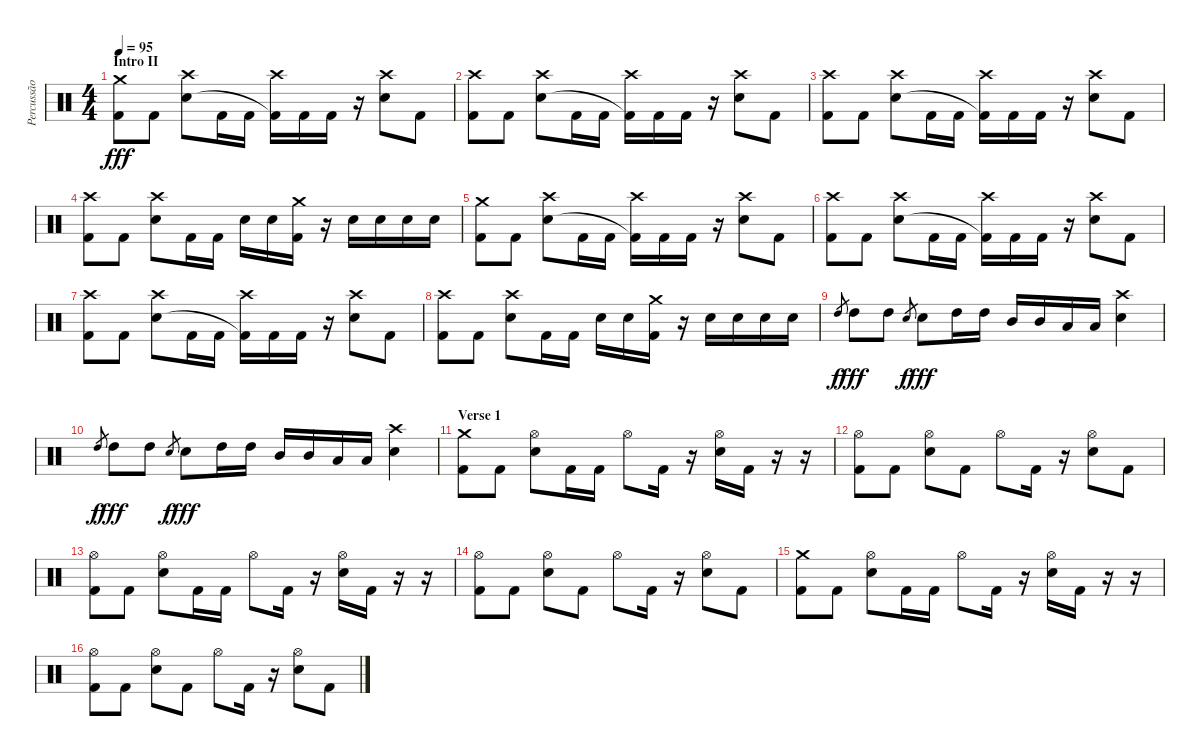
\track ("Percussão" "Percussão") {instrument percussion}
\staff {score}
\articulation defaults
\ts (4 4)
\section ("" "Intro II")
\tempo 95
\clef neutral
\ks c
("Crash medium (hit)" "Kick (hit) 2").8{dy fff} "Kick (hit) 2".8 ("Crash high (hit)" "Electric Snare (hit)").8 "Kick (hit) 2".16 "Kick (hit) 2".16 ("Crash high (hit)" "Kick (hit) 2"{t}).16 "Kick (hit) 2".16 "Kick (hit) 2".16 r.16 ("Crash high (hit)" "Electric Snare (hit)").8 "Kick (hit) 2".8 |
("Crash high (hit)" "Kick (hit) 2").8 "Kick (hit) 2".8 ("Crash high (hit)" "Electric Snare (hit)").8 "Kick (hit) 2".16 "Kick (hit) 2".16 ("Crash high (hit)" "Kick (hit) 2"{t}).16 "Kick (hit) 2".16 "Kick (hit) 2".16 r.16 ("Crash high (hit)" "Electric Snare (hit)").8 "Kick (hit) 2".8 |
("Crash high (hit)" "Kick (hit) 2").8 "Kick (hit) 2".8 ("Crash high (hit)" "Electric Snare (hit)").8 "Kick (hit) 2".16 "Kick (hit) 2".16 ("Crash high (hit)" "Kick (hit) 2"{t}).16 "Kick (hit) 2".16 "Kick (hit) 2".16 r.16 ("Crash high (hit)" "Electric Snare (hit)").8 "Kick (hit) 2".8 |
("Crash high (hit)" "Kick (hit) 2").8 "Kick (hit) 2".8 ("Crash high (hit)" "Electric Snare (hit)").8 "Kick (hit) 2".16 "Kick (hit) 2".16 "Electric Snare (hit)".16 "Electric Snare (hit)".16 ("Crash medium (hit)" "Kick (hit) 2").16 r.16 "Electric Snare (hit)".16 "Electric Snare (hit)".16 "Electric Snare (hit)".16 "Electric Snare (hit)".16 |
("Crash medium (hit)" "Kick (hit) 2").8 "Kick (hit) 2".8 ("Crash high (hit)" "Electric Snare (hit)").8 "Kick (hit) 2".16 "Kick (hit) 2".16 ("Crash high (hit)" "Kick (hit) 2"{t}).16 "Kick (hit) 2".16 "Kick (hit) 2".16 r.16 ("Crash high (hit)" "Electric Snare (hit)").8 "Kick (hit) 2".8 |
("Crash high (hit)" "Kick (hit) 2").8 "Kick (hit) 2".8 ("Crash high (hit)" "Electric Snare (hit)").8 "Kick (hit) 2".16 "Kick (hit) 2".16 ("Crash high (hit)" "Kick (hit) 2"{t}).16 "Kick (hit) 2".16 "Kick (hit) 2".16 r.16 ("Crash high (hit)" "Electric Snare (hit)").8 "Kick (hit) 2".8 |
("Crash high (hit)" "Kick (hit) 2").8 "Kick (hit) 2".8 ("Crash high (hit)" "Electric Snare (hit)").8 "Kick (hit) 2".16 "Kick (hit) 2".16 ("Crash high (hit)" "Kick (hit) 2"{t}).16 "Kick (hit) 2".16 "Kick (hit) 2".16 r.16 ("Crash high (hit)" "Electric Snare (hit)").8 "Kick (hit) 2".8 |
("Crash high (hit)" "Kick (hit) 2").8 "Kick (hit) 2".8 ("Crash high (hit)" "Electric Snare (hit)").8 "Kick (hit) 2".16 "Kick (hit) 2".16 "Electric Snare (hit)".16 "Electric Snare (hit)".16 ("Crash medium (hit)" "Kick (hit) 2").16 r.16 "Electric Snare (hit)".16 "Electric Snare (hit)".16 "Electric Snare (hit)".16 "Electric Snare (hit)".16 |
"High Tom (hit)".8{gr dy f} "High Tom (hit)".8{dy fff} "High Tom (hit)".8 "Electric Snare (hit)".8{gr dy f} "Electric Snare (hit)".8{dy fff} "High Tom (hit)".16 "High Tom (hit)".16 "Mid Tom (hit)".16 "Mid Tom (hit)".16 "Low Tom (hit)".16 "Low Tom (hit)".16 ("Crash high (hit)" "Electric Snare (hit)").4 |
"High Tom (hit)".8{gr dy f} "High Tom (hit)".8{dy fff} "High Tom (hit)".8 "Electric Snare (hit)".8{gr dy f} "Electric Snare (hit)".8{dy fff} "High Tom (hit)".16 "High Tom (hit)".16 "Mid Tom (hit)".16 "Mid Tom (hit)".16 "Low Tom (hit)".16 "Low Tom (hit)".16 ("Crash high (hit)" "Electric Snare (hit)").4 |
\section ("" "Verse 1")
("Crash medium (hit)" "Kick (hit) 2").8 "Kick (hit) 2".8 ("Hi-Hat (open)" "Electric Snare (hit)").8 "Kick (hit) 2".16 "Kick (hit) 2".16 "Hi-Hat (open)".8 "Kick (hit) 2".16 r.16 ("Hi-Hat (open)" "Electric Snare (hit)").16 "Kick (hit) 2".16 r.16 r.16 |
("Hi-Hat (open)" "Kick (hit) 2").8 "Kick (hit) 2".8 ("Hi-Hat (open)" "Electric Snare (hit)").8 "Kick (hit) 2".8 "Hi-Hat (open)".8 "Kick (hit) 2".16 r.16 ("Hi-Hat (open)" "Electric Snare (hit)").8 "Kick (hit) 2".8 |
("Hi-Hat (open)" "Kick (hit) 2").8 "Kick (hit) 2".8 ("Hi-Hat (open)" "Electric Snare (hit)").8 "Kick (hit) 2".16 "Kick (hit) 2".16 "Hi-Hat (open)".8 "Kick (hit) 2".16 r.16 ("Hi-Hat (open)" "Electric Snare (hit)").16 "Kick (hit) 2".16 r.16 r.16 |
("Hi-Hat (open)" "Kick (hit) 2").8 "Kick (hit) 2".8 ("Hi-Hat (open)" "Electric Snare (hit)").8 "Kick (hit) 2".8 "Hi-Hat (open)".8 "Kick (hit) 2".16 r.16 ("Hi-Hat (open)" "Electric Snare (hit)").8 "Kick (hit) 2".8 |
("Crash medium (hit)" "Kick (hit) 2").8 "Kick (hit) 2".8 ("Hi-Hat (open)" "Electric Snare (hit)").8 "Kick (hit) 2".16 "Kick (hit) 2".16 "Hi-Hat (open)".8 "Kick (hit) 2".16 r.16 ("Hi-Hat (open)" "Electric Snare (hit)").16 "Kick (hit) 2".16 r.16 r.16 |
("Hi-Hat (open)" "Kick (hit) 2").8 "Kick (hit) 2".8 ("Hi-Hat (open)" "Electric Snare (hit)").8 "Kick (hit) 2".8 "Hi-Hat (open)".8 "Kick (hit) 2".16 r.16 ("Hi-Hat (open)" "Electric Snare (hit)").8 "Kick (hit) 2".8
